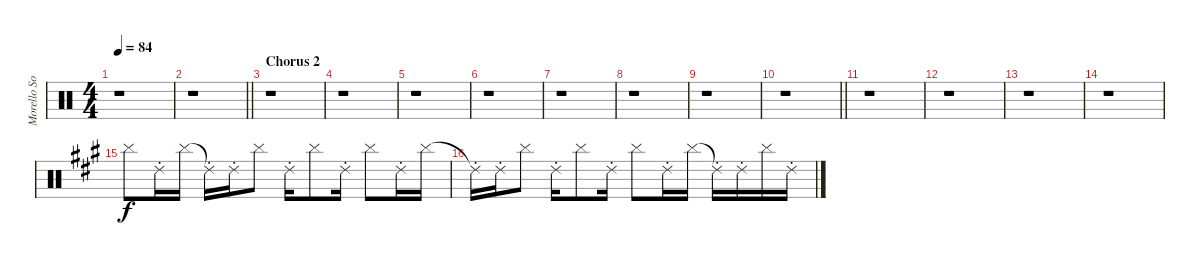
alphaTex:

\track ("Morello Solo" "Morello So") {instrument percussion}
\staff {score}
\articulation defaults
\ts (4 4)
\tempo 84
\clef neutral
\ks c
r.1{dy f} |
\barLineRight lightlight
r.1 |
\section ("" "Chorus 2")
r.1 |
r.1 |
r.1 |
r.1 |
r.1 |
r.1 |
r.1 |
\barLineRight lightlight
r.1 |
r.1 |
r.1 |
r.1 |
r.1 |
\ks a "Cymbal (hit)".8 "Ride (choke) 2".16 "Cymbal (hit)".16 "Ride (choke) 2"{t}.16 "Ride (choke) 2".16 "Cymbal (hit)".8 "Ride (choke) 2".16 "Cymbal (hit)".8 "Ride (choke) 2".16 "Cymbal (hit)".8 "Ride (choke) 2".16 "Cymbal (hit)".16
|
"Ride (choke) 2"{t}.16 "Ride (choke) 2".16 "Cymbal (hit)".8 "Ride (choke) 2".16 "Cymbal (hit)".8 "Ride (choke) 2".16 "Cymbal (hit)".8 "Ride (choke) 2".16 "Cymbal (hit)".16 "Ride (choke) 2"{t}.16 "Ride (choke) 2".16 "Cymbal (hit)".16 "Ride (choke) 2".16
